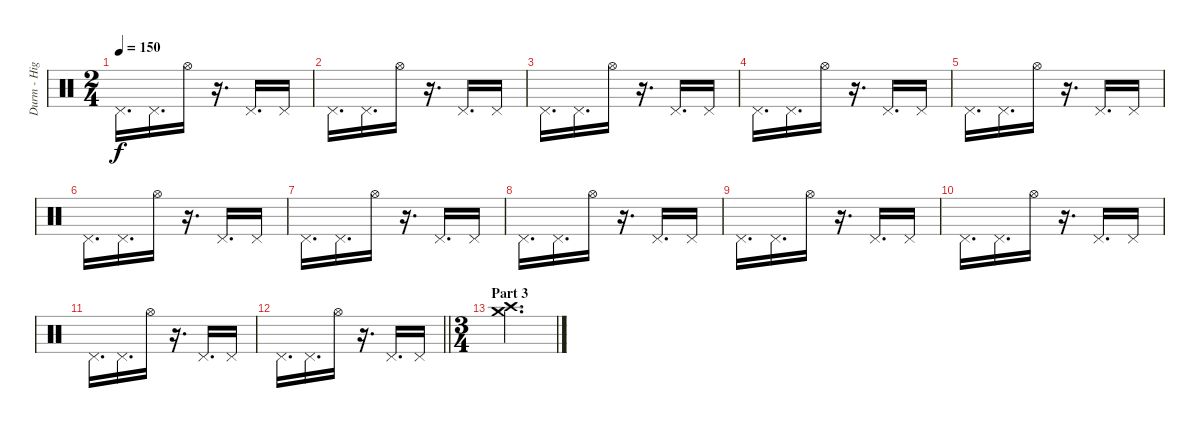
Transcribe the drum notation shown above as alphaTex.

\track ("Durm - High Hat" "Durm - Hig") {instrument percussion}
\staff {score}
\articulation defaults
\ts (2 4)
\tempo 150
\clef neutral
\ks c "Pedal Hi-Hat (hit)".16{d dy f} "Pedal Hi-Hat (hit)".16{d} "Hi-Hat (open)".16
r.16{d} "Pedal Hi-Hat (hit)".16{d} "Pedal Hi-Hat (hit)".16 |
"Pedal Hi-Hat (hit)".16{d} "Pedal Hi-Hat (hit)".16{d} "Hi-Hat (open)".16 r.16{d} "Pedal Hi-Hat (hit)".16{d} "Pedal Hi-Hat (hit)".16 |
"Pedal Hi-Hat (hit)".16{d} "Pedal Hi-Hat (hit)".16{d} "Hi-Hat (open)".16 r.16{d} "Pedal Hi-Hat (hit)".16{d} "Pedal Hi-Hat (hit)".16 |
"Pedal Hi-Hat (hit)".16{d} "Pedal Hi-Hat (hit)".16{d} "Hi-Hat (open)".16 r.16{d} "Pedal Hi-Hat (hit)".16{d} "Pedal Hi-Hat (hit)".16 |
"Pedal Hi-Hat (hit)".16{d} "Pedal Hi-Hat (hit)".16{d} "Hi-Hat (open)".16 r.16{d} "Pedal Hi-Hat (hit)".16{d} "Pedal Hi-Hat (hit)".16 |
"Pedal Hi-Hat (hit)".16{d} "Pedal Hi-Hat (hit)".16{d} "Hi-Hat (open)".16 r.16{d} "Pedal Hi-Hat (hit)".16{d} "Pedal Hi-Hat (hit)".16 |
"Pedal Hi-Hat (hit)".16{d} "Pedal Hi-Hat (hit)".16{d} "Hi-Hat (open)".16 r.16{d} "Pedal Hi-Hat (hit)".16{d} "Pedal Hi-Hat (hit)".16 |
"Pedal Hi-Hat (hit)".16{d} "Pedal Hi-Hat (hit)".16{d} "Hi-Hat (open)".16 r.16{d} "Pedal Hi-Hat (hit)".16{d} "Pedal Hi-Hat (hit)".16 |
"Pedal Hi-Hat (hit)".16{d} "Pedal Hi-Hat (hit)".16{d} "Hi-Hat (open)".16 r.16{d} "Pedal Hi-Hat (hit)".16{d} "Pedal Hi-Hat (hit)".16 |
"Pedal Hi-Hat (hit)".16{d} "Pedal Hi-Hat (hit)".16{d} "Hi-Hat (open)".16 r.16{d} "Pedal Hi-Hat (hit)".16{d} "Pedal Hi-Hat (hit)".16 |
"Pedal Hi-Hat (hit)".16{d} "Pedal Hi-Hat (hit)".16{d} "Hi-Hat (open)".16 r.16{d} "Pedal Hi-Hat (hit)".16{d} "Pedal Hi-Hat (hit)".16 |
\barLineRight lightlight "Pedal Hi-Hat (hit)".16{d} "Pedal Hi-Hat (hit)".16{d} "Hi-Hat (open)".16
r.16{d} "Pedal Hi-Hat (hit)".16{d} "Pedal Hi-Hat (hit)".16 |
\ts (3 4)
\section ("" "Part 3")
("Crash high (hit)" "Crash medium (hit)").2{d}
